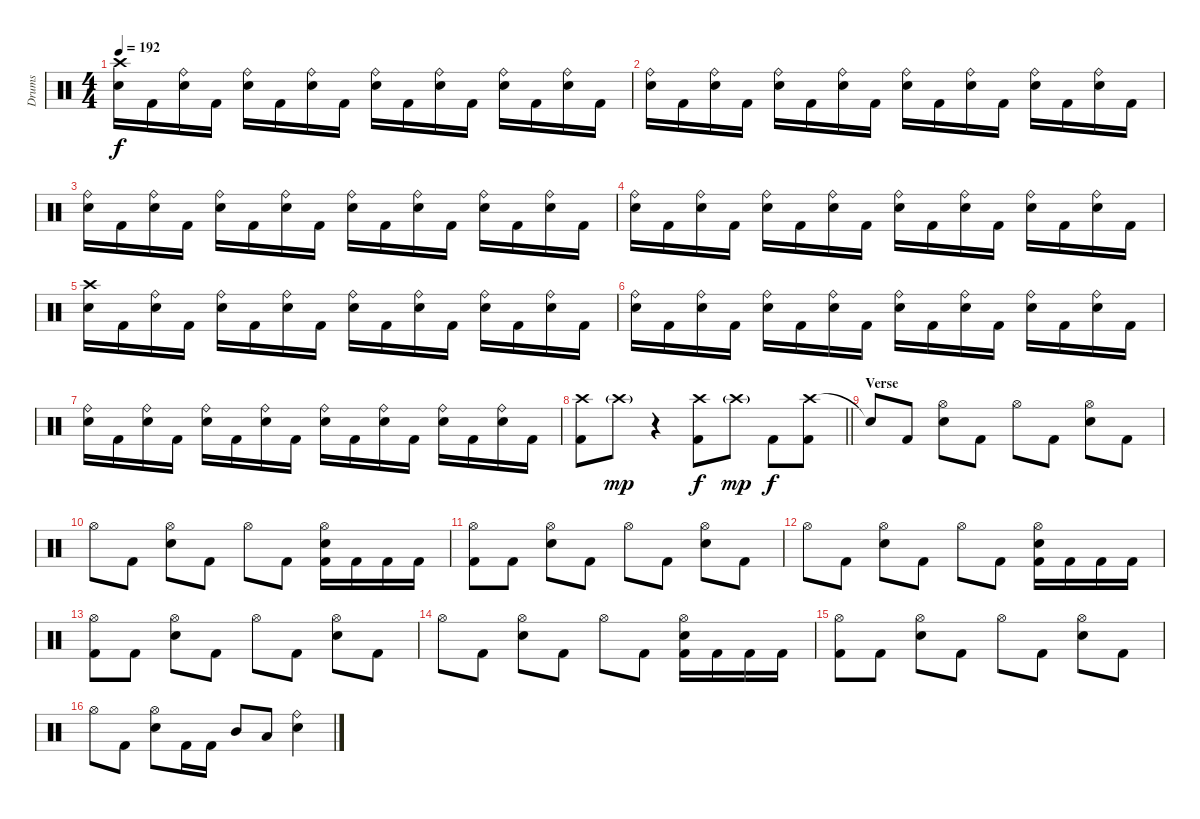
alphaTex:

\track ("Drums" "Drums") {instrument percussion}
\staff {score}
\articulation defaults
\ts (4 4)
\tempo 192
\clef neutral
\ks c
("Crash high (hit)" "Electric Snare (hit)").16{dy f} "Kick (hit) 2".16 ("Ride (bell)" "Electric Snare (hit)").16 "Kick (hit) 2".16 ("Ride (bell)" "Electric Snare (hit)").16 "Kick (hit) 2".16 ("Ride (bell)" "Electric Snare (hit)").16 "Kick (hit) 2".16 ("Ride (bell)" "Electric Snare (hit)").16 "Kick (hit) 2".16 ("Ride (bell)" "Electric Snare (hit)").16 "Kick (hit) 2".16 ("Ride (bell)" "Electric Snare (hit)").16 "Kick (hit) 2".16 ("Ride (bell)" "Electric Snare (hit)").16 "Kick (hit) 2".16 |
("Ride (bell)" "Electric Snare (hit)").16 "Kick (hit) 2".16 ("Ride (bell)" "Electric Snare (hit)").16 "Kick (hit) 2".16 ("Ride (bell)" "Electric Snare (hit)").16 "Kick (hit) 2".16 ("Ride (bell)" "Electric Snare (hit)").16 "Kick (hit) 2".16 ("Ride (bell)" "Electric Snare (hit)").16 "Kick (hit) 2".16 ("Ride (bell)" "Electric Snare (hit)").16 "Kick (hit) 2".16 ("Ride (bell)" "Electric Snare (hit)").16 "Kick (hit) 2".16 ("Ride (bell)" "Electric Snare (hit)").16 "Kick (hit) 2".16 |
("Ride (bell)" "Electric Snare (hit)").16 "Kick (hit) 2".16 ("Ride (bell)" "Electric Snare (hit)").16 "Kick (hit) 2".16 ("Ride (bell)" "Electric Snare (hit)").16 "Kick (hit) 2".16 ("Ride (bell)" "Electric Snare (hit)").16 "Kick (hit) 2".16 ("Ride (bell)" "Electric Snare (hit)").16 "Kick (hit) 2".16 ("Ride (bell)" "Electric Snare (hit)").16 "Kick (hit) 2".16 ("Ride (bell)" "Electric Snare (hit)").16 "Kick (hit) 2".16 ("Ride (bell)" "Electric Snare (hit)").16 "Kick (hit) 2".16 |
("Ride (bell)" "Electric Snare (hit)").16 "Kick (hit) 2".16 ("Ride (bell)" "Electric Snare (hit)").16 "Kick (hit) 2".16 ("Ride (bell)" "Electric Snare (hit)").16 "Kick (hit) 2".16 ("Ride (bell)" "Electric Snare (hit)").16 "Kick (hit) 2".16 ("Ride (bell)" "Electric Snare (hit)").16 "Kick (hit) 2".16 ("Ride (bell)" "Electric Snare (hit)").16 "Kick (hit) 2".16 ("Ride (bell)" "Electric Snare (hit)").16 "Kick (hit) 2".16 ("Ride (bell)" "Electric Snare (hit)").16 "Kick (hit) 2".16 |
("Crash high (hit)" "Electric Snare (hit)").16 "Kick (hit) 2".16 ("Ride (bell)" "Electric Snare (hit)").16 "Kick (hit) 2".16 ("Ride (bell)" "Electric Snare (hit)").16 "Kick (hit) 2".16 ("Ride (bell)" "Electric Snare (hit)").16 "Kick (hit) 2".16 ("Ride (bell)" "Electric Snare (hit)").16 "Kick (hit) 2".16 ("Ride (bell)" "Electric Snare (hit)").16 "Kick (hit) 2".16 ("Ride (bell)" "Electric Snare (hit)").16 "Kick (hit) 2".16 ("Ride (bell)" "Electric Snare (hit)").16 "Kick (hit) 2".16 |
("Ride (bell)" "Electric Snare (hit)").16 "Kick (hit) 2".16 ("Ride (bell)" "Electric Snare (hit)").16 "Kick (hit) 2".16 ("Ride (bell)" "Electric Snare (hit)").16 "Kick (hit) 2".16 ("Ride (bell)" "Electric Snare (hit)").16 "Kick (hit) 2".16 ("Ride (bell)" "Electric Snare (hit)").16 "Kick (hit) 2".16 ("Ride (bell)" "Electric Snare (hit)").16 "Kick (hit) 2".16 ("Ride (bell)" "Electric Snare (hit)").16 "Kick (hit) 2".16 ("Ride (bell)" "Electric Snare (hit)").16 "Kick (hit) 2".16 |
("Ride (bell)" "Electric Snare (hit)").16 "Kick (hit) 2".16 ("Ride (bell)" "Electric Snare (hit)").16 "Kick (hit) 2".16 ("Ride (bell)" "Electric Snare (hit)").16 "Kick (hit) 2".16 ("Ride (bell)" "Electric Snare (hit)").16 "Kick (hit) 2".16 ("Ride (bell)" "Electric Snare (hit)").16 "Kick (hit) 2".16 ("Ride (bell)" "Electric Snare (hit)").16 "Kick (hit) 2".16 ("Ride (bell)" "Electric Snare (hit)").16 "Kick (hit) 2".16 ("Ride (bell)" "Electric Snare (hit)").16 "Kick (hit) 2".16 |
\barLineRight lightlight
("Crash high (hit)" "Kick (hit) 2").8 "Crash high (hit)"{g}.8{dy mp} r.4 ("Crash high (hit)" "Kick (hit) 2").8{dy f} "Crash high (hit)"{g}.8{dy mp} "Kick (hit) 2".8{dy f} ("Crash high (hit)" "Kick (hit) 2").8 |
\section ("" "Verse")
"Snare (hit)"{t}.8 "Kick (hit) 2".8 ("Hi-Hat (open)" "Electric Snare (hit)").8 "Kick (hit) 2".8 "Hi-Hat (open)".8 "Kick (hit) 2".8 ("Hi-Hat (open)" "Electric Snare (hit)").8 "Kick (hit) 2".8 |
"Hi-Hat (open)".8 "Kick (hit) 2".8 ("Hi-Hat (open)" "Electric Snare (hit)").8 "Kick (hit) 2".8 "Hi-Hat (open)".8 "Kick (hit) 2".8 ("Hi-Hat (open)" "Electric Snare (hit)" "Kick (hit) 2").16 "Kick (hit) 2".16 "Kick (hit) 2".16 "Kick (hit) 2".16 |
("Hi-Hat (open)" "Kick (hit) 2").8 "Kick (hit) 2".8 ("Hi-Hat (open)" "Electric Snare (hit)").8 "Kick (hit) 2".8 "Hi-Hat (open)".8 "Kick (hit) 2".8 ("Hi-Hat (open)" "Electric Snare (hit)").8 "Kick (hit) 2".8 |
"Hi-Hat (open)".8 "Kick (hit) 2".8 ("Hi-Hat (open)" "Electric Snare (hit)").8 "Kick (hit) 2".8 "Hi-Hat (open)".8 "Kick (hit) 2".8 ("Hi-Hat (open)" "Electric Snare (hit)" "Kick (hit) 2").16 "Kick (hit) 2".16 "Kick (hit) 2".16 "Kick (hit) 2".16 |
("Hi-Hat (open)" "Kick (hit) 2").8 "Kick (hit) 2".8 ("Hi-Hat (open)" "Electric Snare (hit)").8 "Kick (hit) 2".8 "Hi-Hat (open)".8 "Kick (hit) 2".8 ("Hi-Hat (open)" "Electric Snare (hit)").8 "Kick (hit) 2".8 |
"Hi-Hat (open)".8 "Kick (hit) 2".8 ("Hi-Hat (open)" "Electric Snare (hit)").8 "Kick (hit) 2".8 "Hi-Hat (open)".8 "Kick (hit) 2".8 ("Hi-Hat (open)" "Electric Snare (hit)" "Kick (hit) 2").16 "Kick (hit) 2".16 "Kick (hit) 2".16 "Kick (hit) 2".16 |
("Hi-Hat (open)" "Kick (hit) 2").8 "Kick (hit) 2".8 ("Hi-Hat (open)" "Electric Snare (hit)").8 "Kick (hit) 2".8 "Hi-Hat (open)".8 "Kick (hit) 2".8 ("Hi-Hat (open)" "Electric Snare (hit)").8 "Kick (hit) 2".8 |
"Hi-Hat (open)".8 "Kick (hit) 2".8 ("Hi-Hat (open)" "Electric Snare (hit)").8 "Kick (hit) 2".16 "Kick (hit) 2".16 "Mid Tom (hit)".8 "Low Tom (hit)".8 ("Ride (bell)" "Electric Snare (hit)").4
